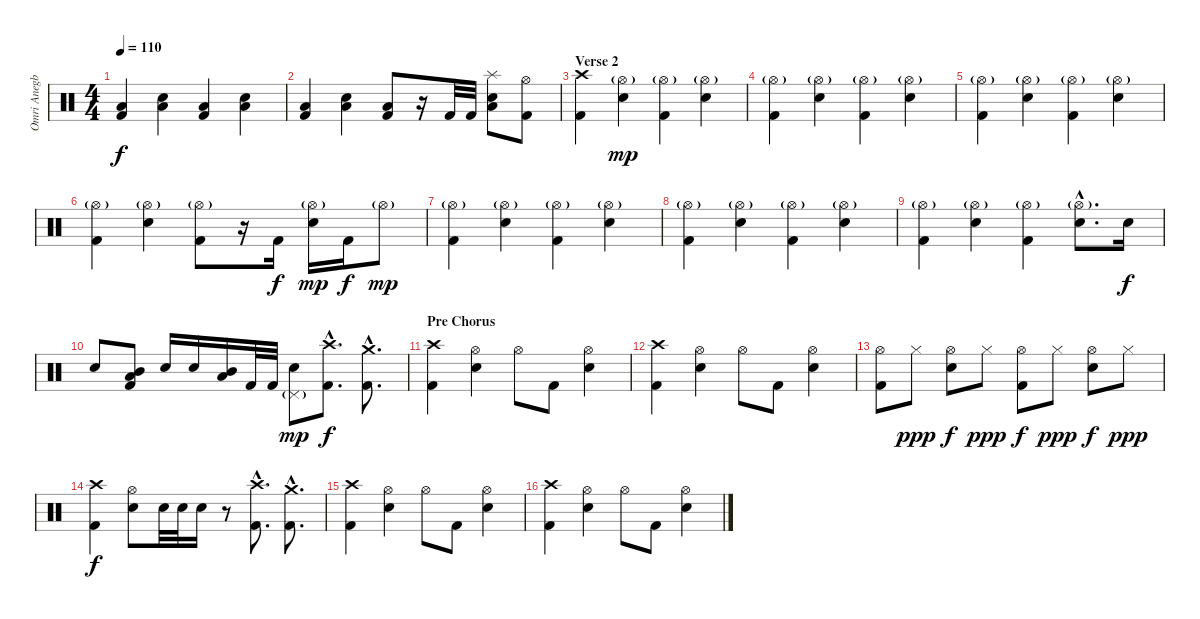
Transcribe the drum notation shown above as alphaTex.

\track ("Omri Anegbi" "Omri Anegb") {instrument percussion}
\staff {score}
\articulation defaults
\ts (4 4)
\tempo 110
\clef neutral
\ks c
("Low Floor Tom (hit)" "Kick (hit) 2").4{dy f} ("Snare (hit) 2" "Low Floor Tom (hit)").4 ("Low Floor Tom (hit)" "Kick (hit) 2").4 ("Snare (hit) 2" "Low Floor Tom (hit)").4 |
("Low Floor Tom (hit)" "Kick (hit) 2").4 ("Snare (hit) 2" "Low Floor Tom (hit)").4 ("Low Floor Tom (hit)" "Kick (hit) 2").8 r.16 "Kick (hit) 2".32 "Kick (hit) 2".32 ("Splash (hit)" "Snare (hit) 2" "Low Floor Tom (hit)").8 ("Hi-Hat (open)" "Kick (hit) 2").8 |
\section ("" "Verse 2")
("Crash high (hit)" "Kick (hit) 2").4 ("Hi-Hat (open)"{g} "Snare (hit) 2").4{dy mp} ("Hi-Hat (open)"{g} "Kick (hit) 2").4 ("Hi-Hat (open)"{g} "Snare (hit) 2").4 |
("Hi-Hat (open)"{g} "Kick (hit) 2").4 ("Hi-Hat (open)"{g} "Snare (hit) 2").4 ("Hi-Hat (open)"{g} "Kick (hit) 2").4 ("Hi-Hat (open)"{g} "Snare (hit) 2").4 |
("Hi-Hat (open)"{g} "Kick (hit) 2").4 ("Hi-Hat (open)"{g} "Snare (hit) 2").4 ("Hi-Hat (open)"{g} "Kick (hit) 2").4 ("Hi-Hat (open)"{g} "Snare (hit) 2").4 |
("Hi-Hat (open)"{g} "Kick (hit) 2").4 ("Hi-Hat (open)"{g} "Snare (hit) 2").4 ("Hi-Hat (open)"{g} "Kick (hit) 2").8 r.16 "Kick (hit) 2".16{dy f} ("Hi-Hat (open)"{g} "Snare (hit) 2").16{dy mp} "Kick (hit) 2".16{dy f} "Hi-Hat (open)"{g}.8{dy mp} |
("Hi-Hat (open)"{g} "Kick (hit) 2").4 ("Hi-Hat (open)"{g} "Snare (hit) 2").4 ("Hi-Hat (open)"{g} "Kick (hit) 2").4 ("Hi-Hat (open)"{g} "Snare (hit) 2").4 |
("Hi-Hat (open)"{g} "Kick (hit) 2").4 ("Hi-Hat (open)"{g} "Snare (hit) 2").4 ("Hi-Hat (open)"{g} "Kick (hit) 2").4 ("Hi-Hat (open)"{g} "Snare (hit) 2").4 |
("Hi-Hat (open)"{g} "Kick (hit) 2").4 ("Hi-Hat (open)"{g} "Snare (hit) 2").4 ("Hi-Hat (open)"{g} "Kick (hit) 2").4 ("Hi-Hat (open)"{g hac} "Snare (hit) 2"{hac}).8{d} "Snare (hit) 2".16{dy f} |
"Snare (hit) 2".8 ("Mid Tom (hit)" "Low Tom (hit)" "Kick (hit) 2").8 "Snare (hit) 2".16 "Snare (hit) 2".16 ("Mid Tom (hit)" "Low Tom (hit)").16 "Kick (hit) 2".32 "Kick (hit) 2".32 ("Pedal Hi-Hat (hit)"{g} "Snare (hit) 2").8{dy mp} ("Crash high (hit)"{hac} "Kick (hit) 2"{hac}).8{d dy f} ("Crash medium (hit)"{hac} "Kick (hit) 2"{hac}).8{d} |
\section ("" "Pre Chorus")
("Crash high (hit)" "Kick (hit) 2").4 ("Hi-Hat (open)" "Snare (hit) 2").4 "Hi-Hat (open)".8 "Kick (hit) 2".8 ("Hi-Hat (open)" "Snare (hit) 2").4 |
("Crash high (hit)" "Kick (hit) 2").4 ("Hi-Hat (open)" "Snare (hit) 2").4 "Hi-Hat (open)".8 "Kick (hit) 2".8 ("Hi-Hat (open)" "Snare (hit) 2").4 |
("Hi-Hat (open)" "Kick (hit) 2").8 "Hi-Hat (closed)".8{dy ppp} ("Hi-Hat (open)" "Snare (hit) 2").8{dy f} "Hi-Hat (closed)".8{dy ppp} ("Hi-Hat (open)" "Kick (hit) 2").8{dy f} "Hi-Hat (closed)".8{dy ppp} ("Hi-Hat (open)" "Snare (hit) 2").8{dy f} "Hi-Hat (closed)".8{dy ppp} |
("Crash high (hit)" "Kick (hit) 2").4{dy f} ("Hi-Hat (open)" "Snare (hit) 2").8 "Snare (hit) 2".32 "Snare (hit) 2".32 "Snare (hit) 2".16 r.8 ("Crash high (hit)"{hac} "Kick (hit) 2"{hac}).8{d} ("Crash medium (hit)"{hac} "Kick (hit) 2"{hac}).8{d} |
("Crash high (hit)" "Kick (hit) 2").4 ("Hi-Hat (open)" "Snare (hit) 2").4 "Hi-Hat (open)".8 "Kick (hit) 2".8 ("Hi-Hat (open)" "Snare (hit) 2").4 |
("Crash high (hit)" "Kick (hit) 2").4 ("Hi-Hat (open)" "Snare (hit) 2").4 "Hi-Hat (open)".8 "Kick (hit) 2".8 ("Hi-Hat (open)" "Snare (hit) 2").4
